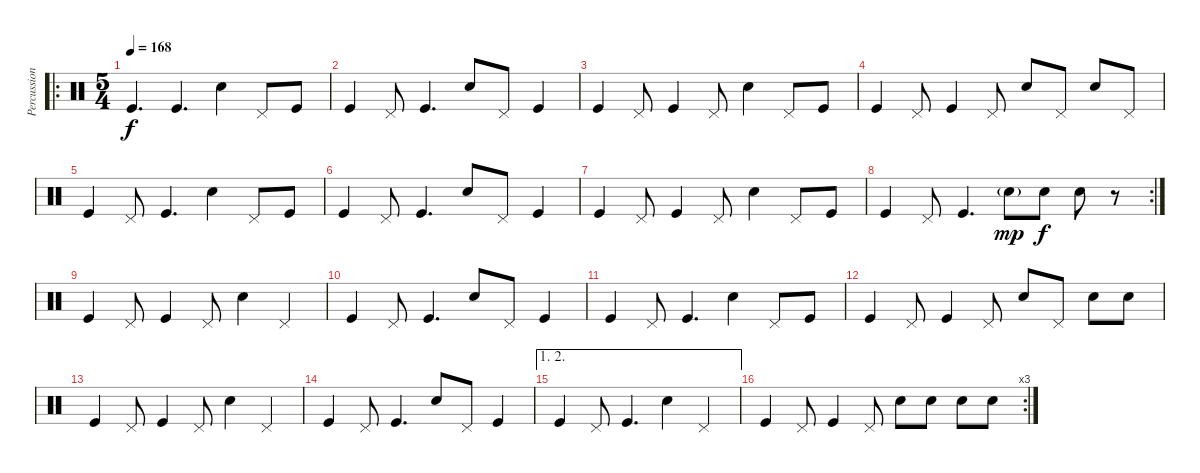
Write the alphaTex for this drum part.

\track ("Percussion" "Percussion") {instrument percussion}
\staff {score}
\articulation defaults
\ro
\ts (5 4)
\tempo 168
\clef neutral
\ks c "Kick (hit)".4{d dy f} "Kick (hit)".4{d} "Snare (hit) 2".4 "Pedal Hi-Hat (hit)".8 "Kick (hit)".8
|
"Kick (hit)".4 "Pedal Hi-Hat (hit)".8 "Kick (hit)".4{d} "Snare (hit) 2".8 "Pedal Hi-Hat (hit)".8 "Kick (hit)".4 |
"Kick (hit)".4 "Pedal Hi-Hat (hit)".8 "Kick (hit)".4 "Pedal Hi-Hat (hit)".8 "Snare (hit) 2".4 "Pedal Hi-Hat (hit)".8 "Kick (hit)".8 |
"Kick (hit)".4 "Pedal Hi-Hat (hit)".8 "Kick (hit)".4 "Pedal Hi-Hat (hit)".8 "Snare (hit) 2".8 "Pedal Hi-Hat (hit)".8 "Snare (hit) 2".8 "Pedal Hi-Hat (hit)".8 |
"Kick (hit)".4 "Pedal Hi-Hat (hit)".8 "Kick (hit)".4{d} "Snare (hit) 2".4 "Pedal Hi-Hat (hit)".8 "Kick (hit)".8 |
"Kick (hit)".4 "Pedal Hi-Hat (hit)".8 "Kick (hit)".4{d} "Snare (hit) 2".8 "Pedal Hi-Hat (hit)".8 "Kick (hit)".4 |
"Kick (hit)".4 "Pedal Hi-Hat (hit)".8 "Kick (hit)".4 "Pedal Hi-Hat (hit)".8 "Snare (hit) 2".4 "Pedal Hi-Hat (hit)".8 "Kick (hit)".8 |
\rc 2 "Kick (hit)".4 "Pedal Hi-Hat (hit)".8 "Kick (hit)".4{d} "Snare (hit) 2"{g}.8{dy mp} "Snare (hit) 2".8{dy f} "Snare (hit) 2".8
r.8 |
"Kick (hit)".4 "Pedal Hi-Hat (hit)".8 "Kick (hit)".4 "Pedal Hi-Hat (hit)".8 "Snare (hit) 2".4 "Pedal Hi-Hat (hit)".4 |
"Kick (hit)".4 "Pedal Hi-Hat (hit)".8 "Kick (hit)".4{d} "Snare (hit) 2".8 "Pedal Hi-Hat (hit)".8 "Kick (hit)".4 |
"Kick (hit)".4 "Pedal Hi-Hat (hit)".8 "Kick (hit)".4{d} "Snare (hit) 2".4 "Pedal Hi-Hat (hit)".8 "Kick (hit)".8 |
"Kick (hit)".4 "Pedal Hi-Hat (hit)".8 "Kick (hit)".4 "Pedal Hi-Hat (hit)".8 "Snare (hit) 2".8 "Pedal Hi-Hat (hit)".8 "Snare (hit) 2".8 "Snare (hit) 2".8 |
"Kick (hit)".4 "Pedal Hi-Hat (hit)".8 "Kick (hit)".4 "Pedal Hi-Hat (hit)".8 "Snare (hit) 2".4 "Pedal Hi-Hat (hit)".4 |
"Kick (hit)".4 "Pedal Hi-Hat (hit)".8 "Kick (hit)".4{d} "Snare (hit) 2".8 "Pedal Hi-Hat (hit)".8 "Kick (hit)".4 |
\ae (1 2)
"Kick (hit)".4 "Pedal Hi-Hat (hit)".8 "Kick (hit)".4{d} "Snare (hit) 2".4 "Pedal Hi-Hat (hit)".4 |
\rc 3 "Kick (hit)".4 "Pedal Hi-Hat (hit)".8 "Kick (hit)".4 "Pedal Hi-Hat (hit)".8 "Snare (hit) 2".8 "Snare (hit) 2".8 "Snare (hit) 2".8 "Snare (hit) 2".8
